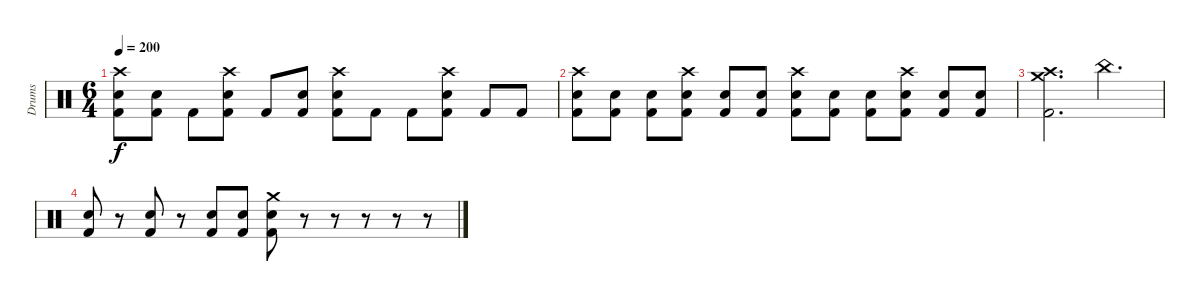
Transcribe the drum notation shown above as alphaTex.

\track ("Drums" "Drums") {mute instrument percussion}
\staff {score}
\articulation defaults
\ts (6 4)
\tempo 200
\clef neutral
\ks c
("Crash high (hit)" "Electric Snare (hit)" "Kick (hit) 2").8{dy f} ("Electric Snare (hit)" "Kick (hit) 2").8 "Kick (hit) 2".8 ("Crash high (hit)" "Electric Snare (hit)" "Kick (hit) 2").8 "Kick (hit) 2".8 ("Electric Snare (hit)" "Kick (hit) 2").8 ("Crash high (hit)" "Electric Snare (hit)" "Kick (hit) 2").8 "Kick (hit) 2".8 "Kick (hit) 2".8 ("Crash high (hit)" "Electric Snare (hit)" "Kick (hit) 2").8 "Kick (hit) 2".8 "Kick (hit) 2".8 |
("Crash high (hit)" "Electric Snare (hit)" "Kick (hit) 2").8 ("Electric Snare (hit)" "Kick (hit) 2").8 ("Electric Snare (hit)" "Kick (hit) 2").8 ("Crash high (hit)" "Electric Snare (hit)" "Kick (hit) 2").8 ("Electric Snare (hit)" "Kick (hit) 2").8 ("Electric Snare (hit)" "Kick (hit) 2").8 ("Crash high (hit)" "Electric Snare (hit)" "Kick (hit) 2").8 ("Electric Snare (hit)" "Kick (hit) 2").8 ("Electric Snare (hit)" "Kick (hit) 2").8 ("Crash high (hit)" "Electric Snare (hit)" "Kick (hit) 2").8 ("Electric Snare (hit)" "Kick (hit) 2").8 ("Electric Snare (hit)" "Kick (hit) 2").8 |
("Crash high (hit)" "Crash medium (hit)" "Kick (hit) 2").2{d} "China (hit)".2{d} |
("Electric Snare (hit)" "Kick (hit) 2").8 r.8 ("Electric Snare (hit)" "Kick (hit) 2").8 r.8 ("Electric Snare (hit)" "Kick (hit) 2").8 ("Electric Snare (hit)" "Kick (hit) 2").8 ("Crash medium (hit)" "Electric Snare (hit)" "Kick (hit) 2").8 r.8 r.8 r.8 r.8 r.8
